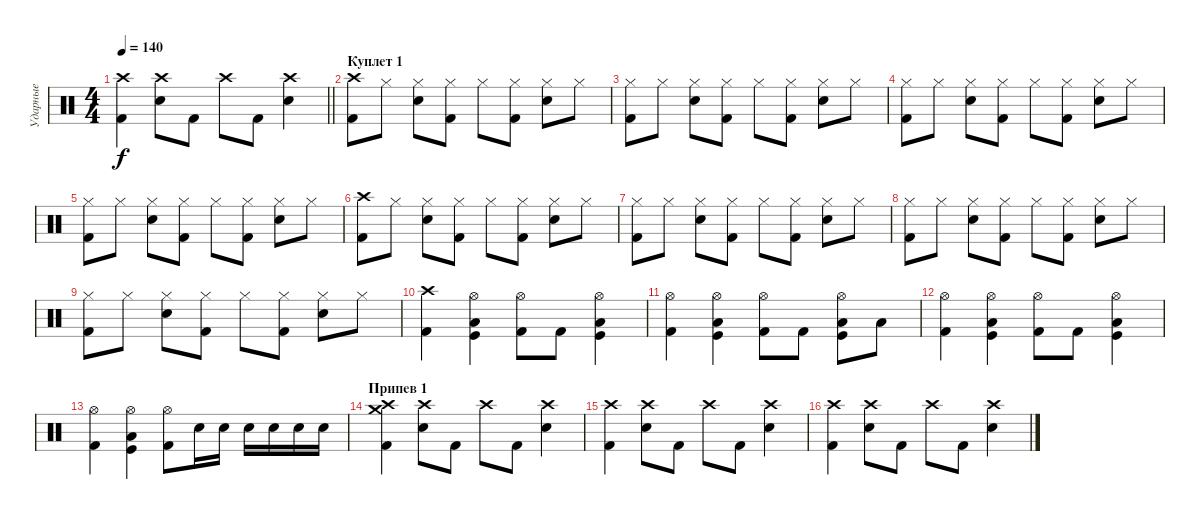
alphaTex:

\track ("Ударные" "Ударные") {instrument percussion}
\staff {score}
\articulation defaults
\ts (4 4)
\tempo 140
\clef neutral
\barLineRight lightlight
\ks c
("Crash high (hit)" "Kick (hit) 2").4{dy f} ("Crash high (hit)" "Electric Snare (hit)").8 "Kick (hit) 2".8 "Crash high (hit)".8 "Kick (hit) 2".8 ("Crash high (hit)" "Electric Snare (hit)").4 |
\section ("" "Куплет 1")
("Crash high (hit)" "Kick (hit) 2").8 "Hi-Hat (closed)".8 ("Hi-Hat (closed)" "Electric Snare (hit)").8 ("Hi-Hat (closed)" "Kick (hit) 2").8 "Hi-Hat (closed)".8 ("Hi-Hat (closed)" "Kick (hit) 2").8 ("Hi-Hat (closed)" "Electric Snare (hit)").8 "Hi-Hat (closed)".8 |
("Hi-Hat (closed)" "Kick (hit) 2").8 "Hi-Hat (closed)".8 ("Hi-Hat (closed)" "Electric Snare (hit)").8 ("Hi-Hat (closed)" "Kick (hit) 2").8 "Hi-Hat (closed)".8 ("Hi-Hat (closed)" "Kick (hit) 2").8 ("Hi-Hat (closed)" "Electric Snare (hit)").8 "Hi-Hat (closed)".8 |
("Hi-Hat (closed)" "Kick (hit) 2").8 "Hi-Hat (closed)".8 ("Hi-Hat (closed)" "Electric Snare (hit)").8 ("Hi-Hat (closed)" "Kick (hit) 2").8 "Hi-Hat (closed)".8 ("Hi-Hat (closed)" "Kick (hit) 2").8 ("Hi-Hat (closed)" "Electric Snare (hit)").8 "Hi-Hat (closed)".8 |
("Hi-Hat (closed)" "Kick (hit) 2").8 "Hi-Hat (closed)".8 ("Hi-Hat (closed)" "Electric Snare (hit)").8 ("Hi-Hat (closed)" "Kick (hit) 2").8 "Hi-Hat (closed)".8 ("Hi-Hat (closed)" "Kick (hit) 2").8 ("Hi-Hat (closed)" "Electric Snare (hit)").8 "Hi-Hat (closed)".8 |
("Crash high (hit)" "Kick (hit) 2").8 "Hi-Hat (closed)".8 ("Hi-Hat (closed)" "Electric Snare (hit)").8 ("Hi-Hat (closed)" "Kick (hit) 2").8 "Hi-Hat (closed)".8 ("Hi-Hat (closed)" "Kick (hit) 2").8 ("Hi-Hat (closed)" "Electric Snare (hit)").8 "Hi-Hat (closed)".8 |
("Hi-Hat (closed)" "Kick (hit) 2").8 "Hi-Hat (closed)".8 ("Hi-Hat (closed)" "Electric Snare (hit)").8 ("Hi-Hat (closed)" "Kick (hit) 2").8 "Hi-Hat (closed)".8 ("Hi-Hat (closed)" "Kick (hit) 2").8 ("Hi-Hat (closed)" "Electric Snare (hit)").8 "Hi-Hat (closed)".8 |
("Hi-Hat (closed)" "Kick (hit) 2").8 "Hi-Hat (closed)".8 ("Hi-Hat (closed)" "Electric Snare (hit)").8 ("Hi-Hat (closed)" "Kick (hit) 2").8 "Hi-Hat (closed)".8 ("Hi-Hat (closed)" "Kick (hit) 2").8 ("Hi-Hat (closed)" "Electric Snare (hit)").8 "Hi-Hat (closed)".8 |
("Hi-Hat (closed)" "Kick (hit) 2").8 "Hi-Hat (closed)".8 ("Hi-Hat (closed)" "Electric Snare (hit)").8 ("Hi-Hat (closed)" "Kick (hit) 2").8 "Hi-Hat (closed)".8 ("Hi-Hat (closed)" "Kick (hit) 2").8 ("Hi-Hat (closed)" "Electric Snare (hit)").8 "Hi-Hat (closed)".8 |
("Crash high (hit)" "Kick (hit) 2").4 ("Hi-Hat (open)" "Kick (hit)" "Low Tom (hit)").4 ("Hi-Hat (open)" "Kick (hit) 2").8 "Kick (hit) 2".8 ("Hi-Hat (open)" "Kick (hit)" "Low Tom (hit)").4 |
("Hi-Hat (open)" "Kick (hit) 2").4 ("Hi-Hat (open)" "Low Tom (hit)" "Kick (hit)").4 ("Hi-Hat (open)" "Kick (hit) 2").8 "Kick (hit) 2".8 ("Hi-Hat (open)" "Low Tom (hit)" "Kick (hit)").8 "Low Tom (hit)".8 |
("Hi-Hat (open)" "Kick (hit) 2").4 ("Hi-Hat (open)" "Low Tom (hit)" "Kick (hit)").4 ("Hi-Hat (open)" "Kick (hit) 2").8 "Kick (hit) 2".8 ("Hi-Hat (open)" "Low Tom (hit)" "Kick (hit)").4 |
("Hi-Hat (open)" "Kick (hit) 2").4 ("Hi-Hat (open)" "Low Tom (hit)" "Kick (hit)").4 ("Hi-Hat (open)" "Kick (hit) 2").8 "Electric Snare (hit)".16 "Electric Snare (hit)".16 "Electric Snare (hit)".16 "Electric Snare (hit)".16 "Electric Snare (hit)".16 "Electric Snare (hit)".16 |
\section ("" "Припев 1")
("Crash high (hit)" "Crash medium (hit)" "Kick (hit) 2").4 ("Crash high (hit)" "Electric Snare (hit)").8 "Kick (hit) 2".8 "Crash high (hit)".8 "Kick (hit) 2".8 ("Crash high (hit)" "Electric Snare (hit)").4 |
("Crash high (hit)" "Kick (hit) 2").4 ("Crash high (hit)" "Electric Snare (hit)").8 "Kick (hit) 2".8 "Crash high (hit)".8 "Kick (hit) 2".8 ("Crash high (hit)" "Electric Snare (hit)").4 |
("Crash high (hit)" "Kick (hit) 2").4 ("Crash high (hit)" "Electric Snare (hit)").8 "Kick (hit) 2".8 "Crash high (hit)".8 "Kick (hit) 2".8 ("Crash high (hit)" "Electric Snare (hit)").4
